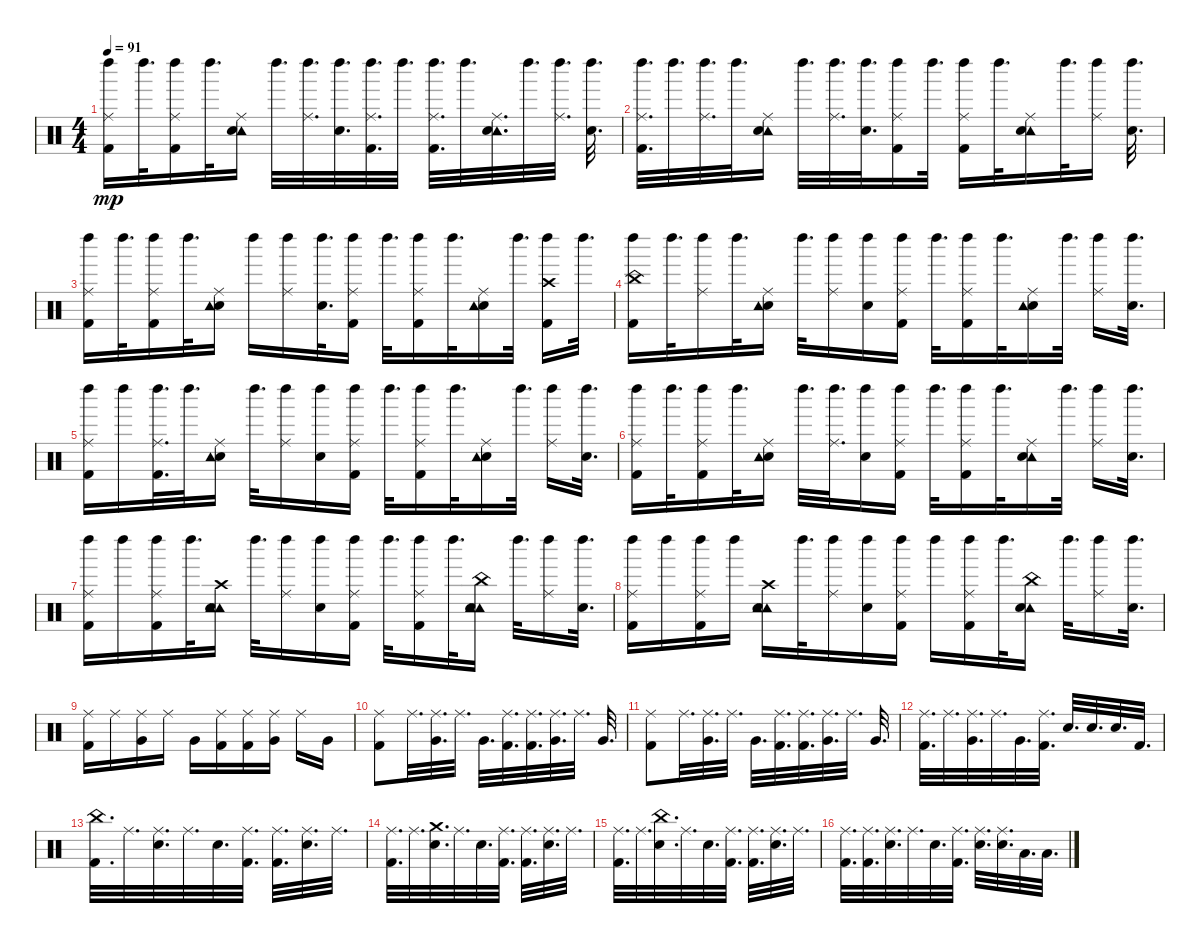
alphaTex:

\track "" {instrument percussion}
\staff {score}
\articulation defaults
\ts (4 4)
\tempo 91
\clef neutral
\ks c
("Kick (hit) 2" "Ride (middle)" "Left Maraca (hit)").16{dy mp} "Left Maraca (hit)".32{d} ("Kick (hit) 2" "Ride (middle)" "Left Maraca (hit)").16 "Left Maraca (hit)".32{d} ("Tambourine (hit)" "Ride (middle)" "Electric Snare (hit)").16 "Left Maraca (hit)".32{d} ("Left Maraca (hit)" "Ride (middle)").32{d} ("Left Maraca (hit)" "Electric Snare (hit)").32{d} ("Left Maraca (hit)" "Kick (hit) 2" "Ride (middle)").32{d} "Left Maraca (hit)".32{d} ("Left Maraca (hit)" "Ride (middle)" "Kick (hit) 2").32{d} "Left Maraca (hit)".32{d} ("Tambourine (hit)" "Ride (middle)" "Electric Snare (hit)").32{d} "Left Maraca (hit)".32{d} ("Left Maraca (hit)" "Ride (middle)").32{d} ("Left Maraca (hit)" "Electric Snare (hit)").32{d} |
("Left Maraca (hit)" "Ride (middle)" "Kick (hit) 2").32{d} "Left Maraca (hit)".32{d} ("Left Maraca (hit)" "Ride (middle)").32{d} "Left Maraca (hit)".32{d} ("Tambourine (hit)" "Electric Snare (hit)" "Ride (middle)").16 "Left Maraca (hit)".32{d} ("Left Maraca (hit)" "Ride (middle)").32{d} ("Left Maraca (hit)" "Electric Snare (hit)").32{d} ("Ride (middle)" "Left Maraca (hit)" "Kick (hit) 2").16 "Left Maraca (hit)".32{d} ("Kick (hit) 2" "Ride (middle)" "Left Maraca (hit)").16 "Left Maraca (hit)".32{d} ("Tambourine (hit)" "Ride (middle)" "Electric Snare (hit)").16 "Left Maraca (hit)".32{d} ("Ride (middle)" "Left Maraca (hit)").16 ("Left Maraca (hit)" "Electric Snare (hit)").32{d} |
("Left Maraca (hit)" "Ride (middle)" "Kick (hit) 2").16 "Left Maraca (hit)".32{d} ("Kick (hit) 2" "Ride (middle)" "Left Maraca (hit)").16 "Left Maraca (hit)".32{d} ("Ride (middle)" "Electric Snare (hit)" "Tambourine (hit)").16 "Left Maraca (hit)".16 ("Ride (middle)" "Left Maraca (hit)").16 ("Left Maraca (hit)" "Electric Snare (hit)").32{d} ("Ride (middle)" "Left Maraca (hit)" "Kick (hit) 2").16 "Left Maraca (hit)".32{d} ("Kick (hit) 2" "Ride (middle)" "Left Maraca (hit)").16 "Left Maraca (hit)".32{d} ("Ride (middle)" "Electric Snare (hit)" "Tambourine (hit)").16 "Left Maraca (hit)".32{d} ("Kick (hit) 2" "Crash high (hit)" "Left Maraca (hit)").16 "Left Maraca (hit)".32{d} |
("China (hit)" "Kick (hit) 2" "Left Maraca (hit)").16 "Left Maraca (hit)".32{d} ("Ride (middle)" "Left Maraca (hit)").16 "Left Maraca (hit)".32{d} ("Electric Snare (hit)" "Ride (middle)" "Tambourine (hit)").16 "Left Maraca (hit)".32{d} ("Ride (middle)" "Left Maraca (hit)").16 ("Electric Snare (hit)" "Left Maraca (hit)").16 ("Kick (hit) 2" "Ride (middle)" "Left Maraca (hit)").16 "Left Maraca (hit)".32{d} ("Kick (hit) 2" "Ride (middle)" "Left Maraca (hit)").16 "Left Maraca (hit)".32{d} ("Electric Snare (hit)" "Ride (middle)" "Tambourine (hit)").16 "Left Maraca (hit)".32{d} ("Ride (middle)" "Left Maraca (hit)").16 ("Left Maraca (hit)" "Electric Snare (hit)").32{d} |
("Left Maraca (hit)" "Ride (middle)" "Kick (hit) 2").16 "Left Maraca (hit)".16 ("Left Maraca (hit)" "Ride (middle)" "Kick (hit) 2").32{d} "Left Maraca (hit)".32{d} ("Electric Snare (hit)" "Tambourine (hit)" "Ride (middle)").16 "Left Maraca (hit)".32{d} ("Ride (middle)" "Left Maraca (hit)").16 ("Left Maraca (hit)" "Electric Snare (hit)").16 ("Kick (hit) 2" "Ride (middle)" "Left Maraca (hit)").16 "Left Maraca (hit)".32{d} ("Kick (hit) 2" "Ride (middle)" "Left Maraca (hit)").16 "Left Maraca (hit)".32{d} ("Electric Snare (hit)" "Ride (middle)" "Tambourine (hit)").16 "Left Maraca (hit)".32{d} ("Ride (middle)" "Left Maraca (hit)").16 ("Electric Snare (hit)" "Left Maraca (hit)").32{d} |
("Kick (hit) 2" "Ride (middle)" "Left Maraca (hit)").16 "Left Maraca (hit)".32{d} ("Kick (hit) 2" "Left Maraca (hit)" "Ride (middle)").16 "Left Maraca (hit)".32{d} ("Electric Snare (hit)" "Tambourine (hit)" "Ride (middle)").16 "Left Maraca (hit)".32{d} ("Left Maraca (hit)" "Ride (middle)").32{d} ("Electric Snare (hit)" "Left Maraca (hit)").16 ("Kick (hit) 2" "Ride (middle)" "Left Maraca (hit)").16 "Left Maraca (hit)".32{d} ("Kick (hit) 2" "Ride (middle)" "Left Maraca (hit)").16 "Left Maraca (hit)".32{d} ("Tambourine (hit)" "Ride (middle)" "Electric Snare (hit)").16 "Left Maraca (hit)".32{d} ("Left Maraca (hit)" "Ride (middle)").16 ("Left Maraca (hit)" "Electric Snare (hit)").32{d} |
("Ride (middle)" "Left Maraca (hit)" "Kick (hit) 2").16 "Left Maraca (hit)".16 ("Ride (middle)" "Kick (hit) 2" "Left Maraca (hit)").16 "Left Maraca (hit)".32{d} ("Crash high (hit)" "Tambourine (hit)" "Electric Snare (hit)" "Tambourine (hit)" "Tambourine (hit)").16 "Left Maraca (hit)".32{d} ("Ride (middle)" "Left Maraca (hit)").16 ("Electric Snare (hit)" "Left Maraca (hit)").16 ("Kick (hit) 2" "Ride (middle)" "Left Maraca (hit)").16 "Left Maraca (hit)".32{d} ("Kick (hit) 2" "Ride (middle)" "Left Maraca (hit)").16 "Left Maraca (hit)".32{d} ("Tambourine (hit)" "China (hit)" "Electric Snare (hit)" "Tambourine (hit)" "Tambourine (hit)").16 "Left Maraca (hit)".32{d} ("Ride (middle)" "Left Maraca (hit)").16 ("Electric Snare (hit)" "Left Maraca (hit)").32{d} |
("Left Maraca (hit)" "Kick (hit) 2" "Ride (middle)").16 "Left Maraca (hit)".16 ("Ride (middle)" "Kick (hit) 2" "Left Maraca (hit)").16 "Left Maraca (hit)".16 ("Tambourine (hit)" "Tambourine (hit)" "Electric Snare (hit)" "Crash high (hit)").16 "Left Maraca (hit)".32{d} ("Ride (middle)" "Left Maraca (hit)").16 ("Electric Snare (hit)" "Left Maraca (hit)").16 ("Kick (hit) 2" "Ride (middle)" "Left Maraca (hit)").16 "Left Maraca (hit)".16 ("Left Maraca (hit)" "Ride (middle)" "Kick (hit) 2").16 "Left Maraca (hit)".32{d} ("Tambourine (hit)" "Electric Snare (hit)" "China (hit)").16 "Left Maraca (hit)".32{d} ("Ride (middle)" "Left Maraca (hit)").16 ("Electric Snare (hit)" "Left Maraca (hit)").32{d} |
("Ride (middle)" "Kick (hit) 2").16 "Ride (middle)".16 ("Ride (middle)" "Very Low Tom (hit)").16 "Ride (middle)".16 "Very Low Tom (hit)".16 ("Ride (middle)" "Kick (hit) 2").16 ("Ride (middle)" "Kick (hit) 2").16 ("Very Low Tom (hit)" "Ride (middle)").16 "Ride (middle)".16 "Very Low Tom (hit)".16 |
("Kick (hit) 2" "Ride (middle)").8 "Ride (middle)".32{d} ("Very Low Tom (hit)" "Ride (middle)").32{d} "Ride (middle)".32{d} "Very Low Tom (hit)".32{d} ("Ride (middle)" "Kick (hit) 2").32{d} ("Ride (middle)" "Kick (hit) 2").32{d} ("Very Low Tom (hit)" "Ride (middle)").32{d} "Ride (middle)".32{d} "Very Low Tom (hit)".32{d} |
("Kick (hit) 2" "Ride (middle)").8 "Ride (middle)".32{d} ("Very Low Tom (hit)" "Ride (middle)").32{d} "Ride (middle)".32{d} "Very Low Tom (hit)".32{d} ("Kick (hit) 2" "Ride (middle)").32{d} ("Ride (middle)" "Kick (hit) 2").32{d} ("Very Low Tom (hit)" "Ride (middle)").32{d} "Ride (middle)".32{d} "Very Low Tom (hit)".32{d} |
("Ride (middle)" "Kick (hit) 2").32{d} "Ride (middle)".32{d} ("Ride (middle)" "Very Low Tom (hit)").32{d} "Ride (middle)".32{d} "Very Low Tom (hit)".32{d} ("Ride (middle)" "Kick (hit) 2").32{d} "Electric Snare (hit)".32{d} "Electric Snare (hit)".32{d} "Electric Snare (hit)".32{d} "Kick (hit) 2".32{d} |
("Kick (hit) 2" "China (hit)").32{d} "Ride (middle)".32{d} ("Electric Snare (hit)" "Ride (middle)").32{d} "Ride (middle)".32{d} "Electric Snare (hit)".32{d} ("Kick (hit) 2" "Ride (middle)").32{d} ("Ride (middle)" "Kick (hit) 2").32{d} ("Ride (middle)" "Electric Snare (hit)").32{d} "Ride (middle)".32{d} |
("Ride (middle)" "Kick (hit) 2").32{d} "Ride (middle)".32{d} ("Electric Snare (hit)" "Crash medium (hit)").32{d} "Ride (middle)".32{d} "Electric Snare (hit)".32{d} ("Kick (hit) 2" "Ride (middle)").32{d} ("Ride (middle)" "Kick (hit) 2").32{d} ("Ride (middle)" "Electric Snare (hit)").32{d} "Ride (middle)".32{d} |
("Ride (middle)" "Kick (hit) 2").32{d} "Ride (middle)".32{d} ("Electric Snare (hit)" "China (hit)").32{d} "Ride (middle)".32{d} "Electric Snare (hit)".32{d} ("Ride (middle)" "Kick (hit) 2").32{d} ("Ride (middle)" "Kick (hit) 2").32{d} ("Ride (middle)" "Electric Snare (hit)").32{d} "Ride (middle)".32{d} |
("Ride (middle)" "Kick (hit) 2").32{d} ("Ride (middle)" "Kick (hit) 2").32{d} ("Electric Snare (hit)" "Ride (middle)").32{d} "Ride (middle)".32{d} "Electric Snare (hit)".32{d} ("Ride (middle)" "Kick (hit) 2").32{d} ("Ride (middle)" "Electric Snare (hit)").32{d} ("Ride (middle)" "Electric Snare (hit)").32{d} "Low Tom (hit)".32{d} "Low Tom (hit)".32{d}
